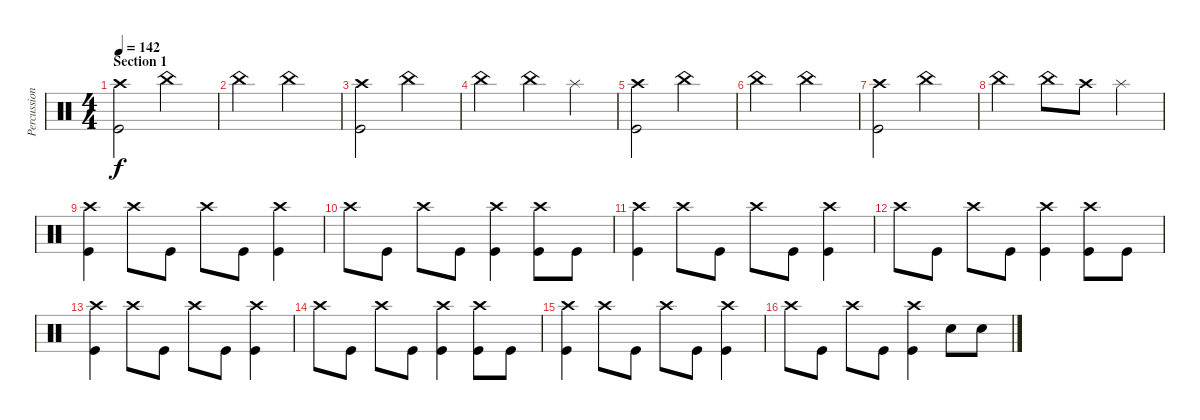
\track ("Percussion" "Percussion") {instrument percussion}
\staff {score}
\articulation defaults
\ts (4 4)
\section ("" "Section 1")
\tempo 142
\clef neutral
\ks c
("Crash high (hit)" "Kick (hit)").2{dy f} "China (hit)".2 |
"China (hit)".2 "China (hit)".2 |
("Crash high (hit)" "Kick (hit)").2 "China (hit)".2 |
"China (hit)".2 "China (hit)".4 "Splash (hit)".4 |
("Crash high (hit)" "Kick (hit)").2 "China (hit)".2 |
"China (hit)".2 "China (hit)".2 |
("Crash high (hit)" "Kick (hit)").2 "China (hit)".2 |
"China (hit)".2 "China (hit)".8 "Crash high (hit)".8 "Splash (hit)".4 |
("Kick (hit)" "Crash high (hit)").4 "Crash high (hit)".8 "Kick (hit)".8 "Crash high (hit)".8 "Kick (hit)".8 ("Crash high (hit)" "Kick (hit)").4 |
"Crash high (hit)".8 "Kick (hit)".8 "Crash high (hit)".8 "Kick (hit)".8 ("Crash high (hit)" "Kick (hit)").4 ("Kick (hit)" "Crash high (hit)").8 "Kick (hit)".8 |
("Kick (hit)" "Crash high (hit)").4 "Crash high (hit)".8 "Kick (hit)".8 "Crash high (hit)".8 "Kick (hit)".8 ("Crash high (hit)" "Kick (hit)").4 |
"Crash high (hit)".8 "Kick (hit)".8 "Crash high (hit)".8 "Kick (hit)".8 ("Crash high (hit)" "Kick (hit)").4 ("Kick (hit)" "Crash high (hit)").8 "Kick (hit)".8 |
("Kick (hit)" "Crash high (hit)").4 "Crash high (hit)".8 "Kick (hit)".8 "Crash high (hit)".8 "Kick (hit)".8 ("Crash high (hit)" "Kick (hit)").4 |
"Crash high (hit)".8 "Kick (hit)".8 "Crash high (hit)".8 "Kick (hit)".8 ("Crash high (hit)" "Kick (hit)").4 ("Kick (hit)" "Crash high (hit)").8 "Kick (hit)".8 |
("Kick (hit)" "Crash high (hit)").4 "Crash high (hit)".8 "Kick (hit)".8 "Crash high (hit)".8 "Kick (hit)".8 ("Crash high (hit)" "Kick (hit)").4 |
"Crash high (hit)".8 "Kick (hit)".8 "Crash high (hit)".8 "Kick (hit)".8 ("Crash high (hit)" "Kick (hit)").4 "Snare (hit) 2".8 "Snare (hit) 2".8
